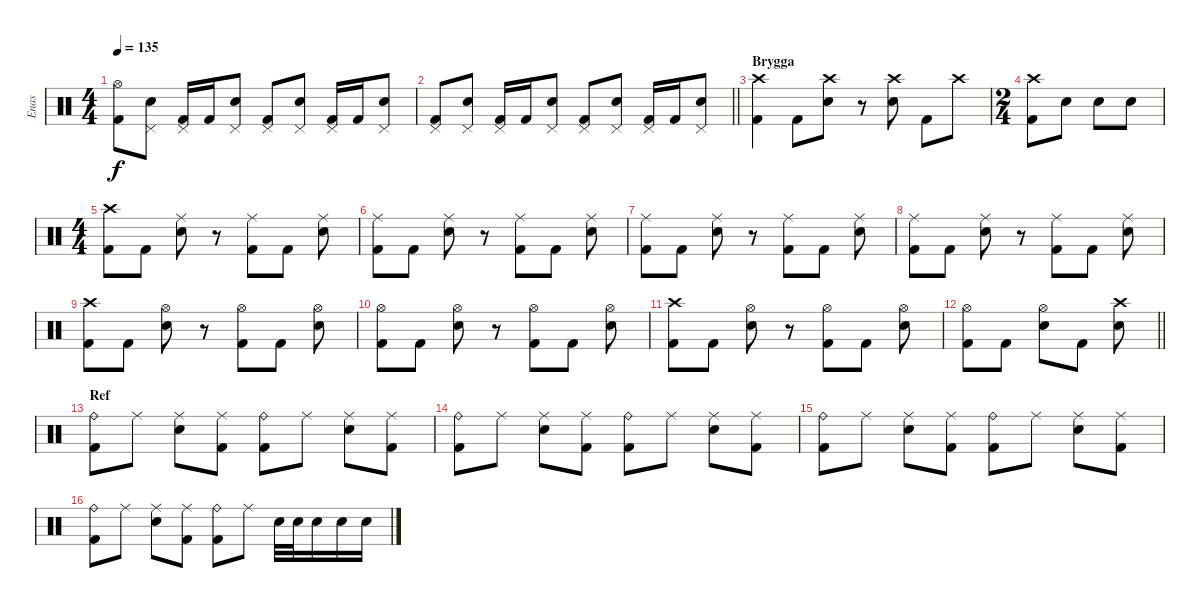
\track ("Enas" "Enas") {instrument percussion}
\staff {score}
\articulation defaults
\ts (4 4)
\tempo 135
\clef neutral
\ks c
("Kick (hit) 2" "Hi-Hat (open)").8{dy f} ("Snare (hit) 2" "Pedal Hi-Hat (hit)").8 ("Kick (hit) 2" "Pedal Hi-Hat (hit)").16 "Kick (hit) 2".16 ("Snare (hit) 2" "Pedal Hi-Hat (hit)").8 ("Kick (hit) 2" "Pedal Hi-Hat (hit)").8 ("Snare (hit) 2" "Pedal Hi-Hat (hit)").8 ("Kick (hit) 2" "Pedal Hi-Hat (hit)").16 "Kick (hit) 2".16 ("Snare (hit) 2" "Pedal Hi-Hat (hit)").8 |
\barLineRight lightlight
("Kick (hit) 2" "Pedal Hi-Hat (hit)").8 ("Snare (hit) 2" "Pedal Hi-Hat (hit)").8 ("Kick (hit) 2" "Pedal Hi-Hat (hit)").16 "Kick (hit) 2".16 ("Snare (hit) 2" "Pedal Hi-Hat (hit)").8 ("Kick (hit) 2" "Pedal Hi-Hat (hit)").8 ("Snare (hit) 2" "Pedal Hi-Hat (hit)").8 ("Kick (hit) 2" "Pedal Hi-Hat (hit)").16 "Kick (hit) 2".16 ("Snare (hit) 2" "Pedal Hi-Hat (hit)").8 |
\section ("" "Brygga")
("Kick (hit) 2" "Crash high (hit)").4 "Kick (hit) 2".8 ("Snare (hit) 2" "Crash high (hit)").8 r.8 ("Snare (hit) 2" "Crash high (hit)").8 "Kick (hit) 2".8 "Crash high (hit)".8 |
\ts (2 4)
("Kick (hit) 2" "Crash high (hit)").8 "Snare (hit) 2".8 "Snare (hit) 2".8 "Snare (hit) 2".8 |
\ts (4 4)
("Kick (hit) 2" "Crash high (hit)").8 "Kick (hit) 2".8 ("Snare (hit) 2" "Ride (middle)").8 r.8 ("Kick (hit) 2" "Ride (middle)").8 "Kick (hit) 2".8 ("Snare (hit) 2" "Ride (middle)").8 |
("Kick (hit) 2" "Ride (middle)").8 "Kick (hit) 2".8 ("Snare (hit) 2" "Ride (middle)").8 r.8 ("Kick (hit) 2" "Ride (middle)").8 "Kick (hit) 2".8 ("Snare (hit) 2" "Ride (middle)").8 |
("Kick (hit) 2" "Ride (middle)").8 "Kick (hit) 2".8 ("Snare (hit) 2" "Ride (middle)").8 r.8 ("Kick (hit) 2" "Ride (middle)").8 "Kick (hit) 2".8 ("Snare (hit) 2" "Ride (middle)").8 |
("Kick (hit) 2" "Ride (middle)").8 "Kick (hit) 2".8 ("Snare (hit) 2" "Ride (middle)").8 r.8 ("Kick (hit) 2" "Ride (middle)").8 "Kick (hit) 2".8 ("Snare (hit) 2" "Ride (middle)").8 |
("Kick (hit) 2" "Crash high (hit)").8 "Kick (hit) 2".8 ("Snare (hit) 2" "Hi-Hat (open)").8 r.8 ("Kick (hit) 2" "Hi-Hat (open)").8 "Kick (hit) 2".8 ("Snare (hit) 2" "Hi-Hat (open)").8 |
("Kick (hit) 2" "Hi-Hat (open)").8 "Kick (hit) 2".8 ("Snare (hit) 2" "Hi-Hat (open)").8 r.8 ("Kick (hit) 2" "Hi-Hat (open)").8 "Kick (hit) 2".8 ("Snare (hit) 2" "Hi-Hat (open)").8 |
("Kick (hit) 2" "Crash high (hit)").8 "Kick (hit) 2".8 ("Snare (hit) 2" "Hi-Hat (open)").8 r.8 ("Kick (hit) 2" "Hi-Hat (open)").8 "Kick (hit) 2".8 ("Snare (hit) 2" "Hi-Hat (open)").8 |
\barLineRight lightlight
("Kick (hit) 2" "Hi-Hat (open)").8 "Kick (hit) 2".8 ("Snare (hit) 2" "Hi-Hat (open)").8 "Kick (hit) 2".8 ("Snare (hit) 2" "Crash high (hit)").8 |
\section ("" "Ref")
("Ride (bell)" "Kick (hit) 2").8 "Ride (middle)".8 ("Ride (middle)" "Snare (hit) 2").8 ("Ride (middle)" "Kick (hit) 2").8 ("Ride (bell)" "Kick (hit) 2").8 "Ride (middle)".8 ("Ride (middle)" "Snare (hit) 2").8 ("Ride (middle)" "Kick (hit) 2").8 |
("Ride (bell)" "Kick (hit) 2").8 "Ride (middle)".8 ("Ride (middle)" "Snare (hit) 2").8 ("Ride (middle)" "Kick (hit) 2").8 ("Ride (bell)" "Kick (hit) 2").8 "Ride (middle)".8 ("Ride (middle)" "Snare (hit) 2").8 ("Ride (middle)" "Kick (hit) 2").8 |
("Ride (bell)" "Kick (hit) 2").8 "Ride (middle)".8 ("Ride (middle)" "Snare (hit) 2").8 ("Ride (middle)" "Kick (hit) 2").8 ("Ride (bell)" "Kick (hit) 2").8 "Ride (middle)".8 ("Ride (middle)" "Snare (hit) 2").8 ("Ride (middle)" "Kick (hit) 2").8 |
("Ride (bell)" "Kick (hit) 2").8 "Ride (middle)".8 ("Ride (middle)" "Snare (hit) 2").8 ("Ride (middle)" "Kick (hit) 2").8 ("Ride (bell)" "Kick (hit) 2").8 "Ride (middle)".8 "Snare (hit) 2".32 "Snare (hit) 2".32 "Snare (hit) 2".16 "Snare (hit) 2".16 "Snare (hit) 2".16
